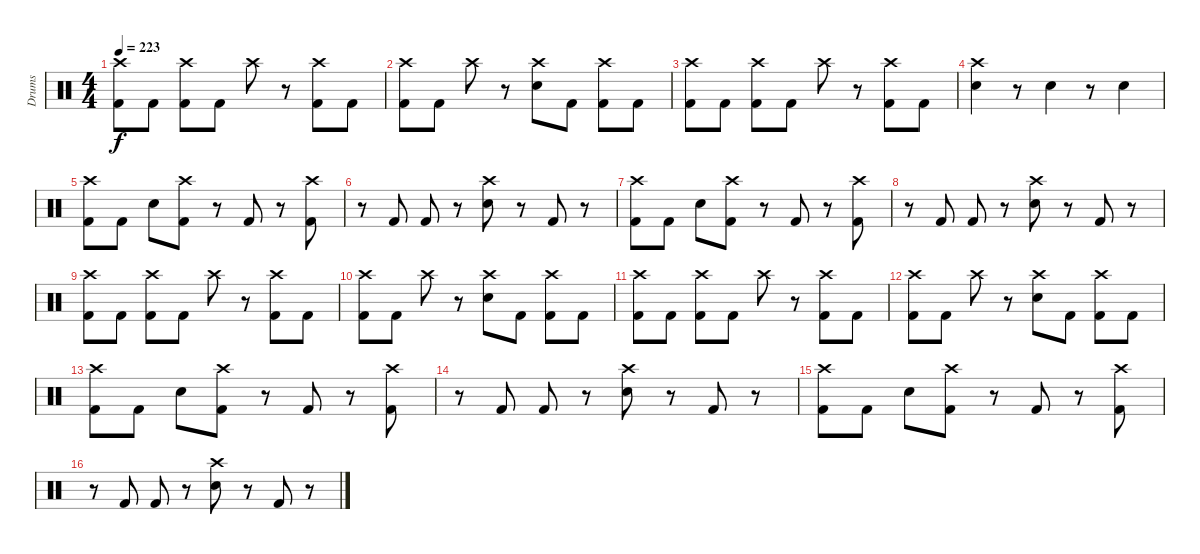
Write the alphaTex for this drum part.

\track ("Drums" "Drums") {instrument percussion bank 177}
\staff {score}
\articulation defaults
\ts (4 4)
\tempo 223
\clef neutral
\ks c
("Crash high (hit)" "Kick (hit) 2").8{dy f} "Kick (hit) 2".8 ("Crash high (hit)" "Kick (hit) 2").8 "Kick (hit) 2".8 "Crash high (hit)".8 r.8 ("Crash high (hit)" "Kick (hit) 2").8 "Kick (hit) 2".8 |
("Crash high (hit)" "Kick (hit) 2").8 "Kick (hit) 2".8 "Crash high (hit)".8 r.8 ("Crash high (hit)" "Electric Snare (hit)").8 "Kick (hit) 2".8 ("Crash high (hit)" "Kick (hit) 2").8 "Kick (hit) 2".8 |
("Crash high (hit)" "Kick (hit) 2").8 "Kick (hit) 2".8 ("Crash high (hit)" "Kick (hit) 2").8 "Kick (hit) 2".8 "Crash high (hit)".8 r.8 ("Crash high (hit)" "Kick (hit) 2").8 "Kick (hit) 2".8 |
("Crash high (hit)" "Electric Snare (hit)").4 r.8 "Electric Snare (hit)".4 r.8 "Electric Snare (hit)".4 |
("Crash high (hit)" "Kick (hit) 2").8 "Kick (hit) 2".8 "Electric Snare (hit)".8 ("Crash high (hit)" "Kick (hit) 2").8 r.8 "Kick (hit) 2".8 r.8 ("Crash high (hit)" "Kick (hit) 2").8 |
r.8 "Kick (hit) 2".8 "Kick (hit) 2".8 r.8 ("Crash high (hit)" "Electric Snare (hit)").8 r.8 "Kick (hit) 2".8 r.8 |
("Crash high (hit)" "Kick (hit) 2").8 "Kick (hit) 2".8 "Electric Snare (hit)".8 ("Crash high (hit)" "Kick (hit) 2").8 r.8 "Kick (hit) 2".8 r.8 ("Crash high (hit)" "Kick (hit) 2").8 |
r.8 "Kick (hit) 2".8 "Kick (hit) 2".8 r.8 ("Crash high (hit)" "Electric Snare (hit)").8 r.8 "Kick (hit) 2".8 r.8 |
("Crash high (hit)" "Kick (hit) 2").8 "Kick (hit) 2".8 ("Crash high (hit)" "Kick (hit) 2").8 "Kick (hit) 2".8 "Crash high (hit)".8 r.8 ("Crash high (hit)" "Kick (hit) 2").8 "Kick (hit) 2".8 |
("Crash high (hit)" "Kick (hit) 2").8 "Kick (hit) 2".8 "Crash high (hit)".8 r.8 ("Crash high (hit)" "Electric Snare (hit)").8 "Kick (hit) 2".8 ("Crash high (hit)" "Kick (hit) 2").8 "Kick (hit) 2".8 |
("Crash high (hit)" "Kick (hit) 2").8 "Kick (hit) 2".8 ("Crash high (hit)" "Kick (hit) 2").8 "Kick (hit) 2".8 "Crash high (hit)".8 r.8 ("Crash high (hit)" "Kick (hit) 2").8 "Kick (hit) 2".8 |
("Crash high (hit)" "Kick (hit) 2").8 "Kick (hit) 2".8 "Crash high (hit)".8 r.8 ("Crash high (hit)" "Electric Snare (hit)").8 "Kick (hit) 2".8 ("Crash high (hit)" "Kick (hit) 2").8 "Kick (hit) 2".8 |
("Crash high (hit)" "Kick (hit) 2").8 "Kick (hit) 2".8 "Electric Snare (hit)".8 ("Crash high (hit)" "Kick (hit) 2").8 r.8 "Kick (hit) 2".8 r.8 ("Crash high (hit)" "Kick (hit) 2").8 |
r.8 "Kick (hit) 2".8 "Kick (hit) 2".8 r.8 ("Crash high (hit)" "Electric Snare (hit)").8 r.8 "Kick (hit) 2".8 r.8 |
("Crash high (hit)" "Kick (hit) 2").8 "Kick (hit) 2".8 "Electric Snare (hit)".8 ("Crash high (hit)" "Kick (hit) 2").8 r.8 "Kick (hit) 2".8 r.8 ("Crash high (hit)" "Kick (hit) 2").8 |
r.8 "Kick (hit) 2".8 "Kick (hit) 2".8 r.8 ("Crash high (hit)" "Electric Snare (hit)").8 r.8 "Kick (hit) 2".8 r.8
